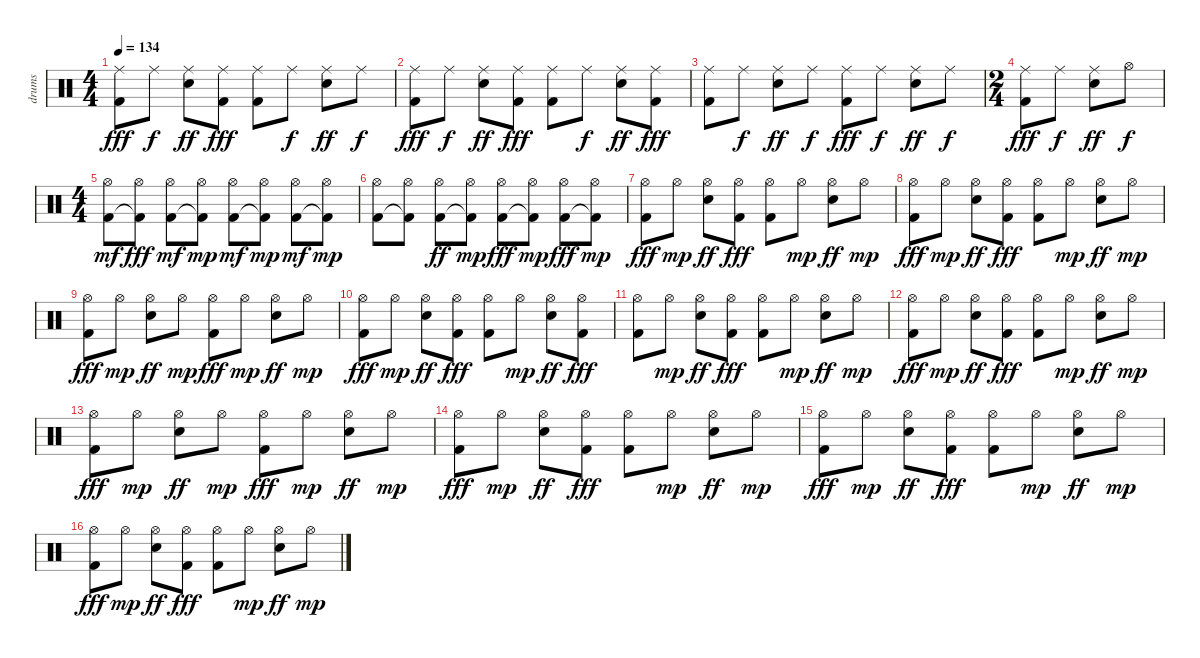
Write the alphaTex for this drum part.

\track ("drums" "drums") {instrument percussion}
\staff {score}
\articulation defaults
\ts (4 4)
\tempo 134
\clef neutral
\ks c
("Ride (middle)" "Kick (hit) 2").8{dy fff} "Ride (middle)".8{dy f} ("Ride (middle)" "Electric Snare (hit)").8{dy ff} ("Ride (middle)" "Kick (hit) 2").8{dy fff} ("Ride (middle)" "Kick (hit) 2").8 "Ride (middle)".8{dy f} ("Ride (middle)" "Electric Snare (hit)").8{dy ff} "Ride (middle)".8{dy f} |
("Ride (middle)" "Kick (hit) 2").8{dy fff} "Ride (middle)".8{dy f} ("Ride (middle)" "Electric Snare (hit)").8{dy ff} ("Ride (middle)" "Kick (hit) 2").8{dy fff} ("Ride (middle)" "Kick (hit) 2").8 "Ride (middle)".8{dy f} ("Ride (middle)" "Electric Snare (hit)").8{dy ff} ("Ride (middle)" "Kick (hit) 2").8{dy fff} |
("Ride (middle)" "Kick (hit) 2").8 "Ride (middle)".8{dy f} ("Ride (middle)" "Electric Snare (hit)").8{dy ff} "Ride (middle)".8{dy f} ("Ride (middle)" "Kick (hit) 2").8{dy fff} "Ride (middle)".8{dy f} ("Ride (middle)" "Electric Snare (hit)").8{dy ff} "Ride (middle)".8{dy f} |
\ts (2 4)
("Ride (middle)" "Kick (hit) 2").8{dy fff} "Ride (middle)".8{dy f} ("Ride (middle)" "Electric Snare (hit)").8{dy ff} "Hi-Hat (open)".8{dy f volume 8} |
\ts (4 4)
("Hi-Hat (open)" "Kick (hit) 2").8{dy mf volume 13} ("Hi-Hat (open)" "Kick (hit) 2"{t}).8{dy fff} ("Hi-Hat (open)" "Kick (hit) 2").8{dy mf} ("Hi-Hat (open)" "Kick (hit) 2"{t}).8{dy mp} ("Hi-Hat (open)" "Kick (hit) 2").8{dy mf} ("Hi-Hat (open)" "Kick (hit) 2"{t}).8{dy mp} ("Hi-Hat (open)" "Kick (hit) 2").8{dy mf volume 12} ("Hi-Hat (open)" "Kick (hit) 2"{t}).8{dy mp} |
("Hi-Hat (open)" "Kick (hit) 2").8 ("Hi-Hat (open)" "Kick (hit) 2"{t}).8 ("Hi-Hat (open)" "Kick (hit) 2").8{dy ff} ("Hi-Hat (open)" "Kick (hit) 2"{t}).8{dy mp} ("Hi-Hat (open)" "Kick (hit) 2").8{dy fff} ("Hi-Hat (open)" "Kick (hit) 2"{t}).8{dy mp} ("Hi-Hat (open)" "Kick (hit) 2").8{dy fff} ("Hi-Hat (open)" "Kick (hit) 2"{t}).8{dy mp} |
("Hi-Hat (open)" "Kick (hit) 2").8{dy fff} "Hi-Hat (open)".8{dy mp} ("Hi-Hat (open)" "Electric Snare (hit)").8{dy ff} ("Hi-Hat (open)" "Kick (hit) 2").8{dy fff} ("Hi-Hat (open)" "Kick (hit) 2").8 "Hi-Hat (open)".8{dy mp} ("Hi-Hat (open)" "Electric Snare (hit)").8{dy ff} "Hi-Hat (open)".8{dy mp} |
("Hi-Hat (open)" "Kick (hit) 2").8{dy fff} "Hi-Hat (open)".8{dy mp} ("Hi-Hat (open)" "Electric Snare (hit)").8{dy ff} ("Hi-Hat (open)" "Kick (hit) 2").8{dy fff} ("Hi-Hat (open)" "Kick (hit) 2").8 "Hi-Hat (open)".8{dy mp} ("Hi-Hat (open)" "Electric Snare (hit)").8{dy ff} "Hi-Hat (open)".8{dy mp} |
("Hi-Hat (open)" "Kick (hit) 2").8{dy fff} "Hi-Hat (open)".8{dy mp} ("Hi-Hat (open)" "Electric Snare (hit)").8{dy ff} "Hi-Hat (open)".8{dy mp} ("Hi-Hat (open)" "Kick (hit) 2").8{dy fff} "Hi-Hat (open)".8{dy mp} ("Hi-Hat (open)" "Electric Snare (hit)").8{dy ff} "Hi-Hat (open)".8{dy mp} |
("Hi-Hat (open)" "Kick (hit) 2").8{dy fff} "Hi-Hat (open)".8{dy mp} ("Hi-Hat (open)" "Electric Snare (hit)").8{dy ff} ("Hi-Hat (open)" "Kick (hit) 2").8{dy fff} ("Hi-Hat (open)" "Kick (hit) 2").8 "Hi-Hat (open)".8{dy mp} ("Hi-Hat (open)" "Electric Snare (hit)").8{dy ff} ("Hi-Hat (open)" "Kick (hit) 2").8{dy fff} |
("Hi-Hat (open)" "Kick (hit) 2").8 "Hi-Hat (open)".8{dy mp} ("Hi-Hat (open)" "Electric Snare (hit)").8{dy ff} ("Hi-Hat (open)" "Kick (hit) 2").8{dy fff} ("Hi-Hat (open)" "Kick (hit) 2").8 "Hi-Hat (open)".8{dy mp} ("Hi-Hat (open)" "Electric Snare (hit)").8{dy ff} "Hi-Hat (open)".8{dy mp} |
("Hi-Hat (open)" "Kick (hit) 2").8{dy fff} "Hi-Hat (open)".8{dy mp} ("Hi-Hat (open)" "Electric Snare (hit)").8{dy ff} ("Hi-Hat (open)" "Kick (hit) 2").8{dy fff} ("Hi-Hat (open)" "Kick (hit) 2").8 "Hi-Hat (open)".8{dy mp} ("Hi-Hat (open)" "Electric Snare (hit)").8{dy ff} "Hi-Hat (open)".8{dy mp} |
("Hi-Hat (open)" "Kick (hit) 2").8{dy fff} "Hi-Hat (open)".8{dy mp} ("Hi-Hat (open)" "Electric Snare (hit)").8{dy ff} "Hi-Hat (open)".8{dy mp} ("Hi-Hat (open)" "Kick (hit) 2").8{dy fff} "Hi-Hat (open)".8{dy mp} ("Hi-Hat (open)" "Electric Snare (hit)").8{dy ff} "Hi-Hat (open)".8{dy mp} |
("Hi-Hat (open)" "Kick (hit) 2").8{dy fff} "Hi-Hat (open)".8{dy mp} ("Hi-Hat (open)" "Electric Snare (hit)").8{dy ff} ("Hi-Hat (open)" "Kick (hit) 2").8{dy fff} ("Hi-Hat (open)" "Kick (hit) 2").8 "Hi-Hat (open)".8{dy mp} ("Hi-Hat (open)" "Electric Snare (hit)").8{dy ff} "Hi-Hat (open)".8{dy mp} |
("Hi-Hat (open)" "Kick (hit) 2").8{dy fff} "Hi-Hat (open)".8{dy mp} ("Hi-Hat (open)" "Electric Snare (hit)").8{dy ff} ("Hi-Hat (open)" "Kick (hit) 2").8{dy fff} ("Hi-Hat (open)" "Kick (hit) 2").8 "Hi-Hat (open)".8{dy mp} ("Hi-Hat (open)" "Electric Snare (hit)").8{dy ff} "Hi-Hat (open)".8{dy mp} |
("Hi-Hat (open)" "Kick (hit) 2").8{dy fff} "Hi-Hat (open)".8{dy mp} ("Hi-Hat (open)" "Electric Snare (hit)").8{dy ff} ("Hi-Hat (open)" "Kick (hit) 2").8{dy fff} ("Hi-Hat (open)" "Kick (hit) 2").8 "Hi-Hat (open)".8{dy mp} ("Hi-Hat (open)" "Electric Snare (hit)").8{dy ff} "Hi-Hat (open)".8{dy mp}
